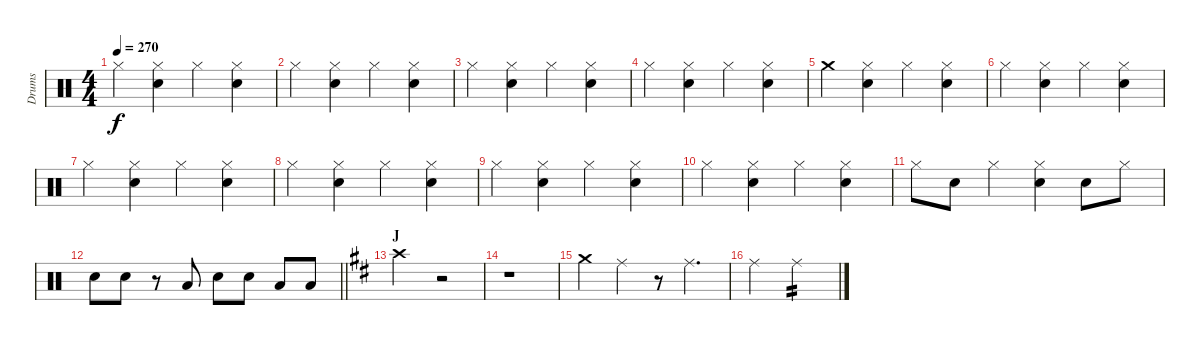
\track ("Drums" "Drums") {instrument percussion}
\staff {score}
\articulation defaults
\ts (4 4)
\tempo 270
\clef neutral
\ks c "Hi-Hat (closed)".4{dy f}
("Hi-Hat (closed)" "Snare (hit) 2").4 "Hi-Hat (closed)".4 ("Hi-Hat (closed)" "Snare (hit) 2").4 |
"Hi-Hat (closed)".4 ("Hi-Hat (closed)" "Snare (hit) 2").4 "Hi-Hat (closed)".4 ("Hi-Hat (closed)" "Snare (hit) 2").4 |
"Hi-Hat (closed)".4 ("Hi-Hat (closed)" "Snare (hit) 2").4 "Hi-Hat (closed)".4 ("Hi-Hat (closed)" "Snare (hit) 2").4 |
"Hi-Hat (closed)".4 ("Hi-Hat (closed)" "Snare (hit) 2").4 "Hi-Hat (closed)".4 ("Hi-Hat (closed)" "Snare (hit) 2").4 |
"Crash medium (hit)".4 ("Hi-Hat (closed)" "Snare (hit) 2").4 "Hi-Hat (closed)".4 ("Hi-Hat (closed)" "Snare (hit) 2").4 |
"Hi-Hat (closed)".4 ("Hi-Hat (closed)" "Snare (hit) 2").4 "Hi-Hat (closed)".4 ("Hi-Hat (closed)" "Snare (hit) 2").4 |
"Hi-Hat (closed)".4 ("Hi-Hat (closed)" "Snare (hit) 2").4 "Hi-Hat (closed)".4 ("Hi-Hat (closed)" "Snare (hit) 2").4 |
"Hi-Hat (closed)".4 ("Hi-Hat (closed)" "Snare (hit) 2").4 "Hi-Hat (closed)".4 ("Hi-Hat (closed)" "Snare (hit) 2").4 |
"Hi-Hat (closed)".4 ("Hi-Hat (closed)" "Snare (hit) 2").4 "Hi-Hat (closed)".4 ("Hi-Hat (closed)" "Snare (hit) 2").4 |
"Hi-Hat (closed)".4 ("Hi-Hat (closed)" "Snare (hit) 2").4 "Hi-Hat (closed)".4 ("Hi-Hat (closed)" "Snare (hit) 2").4 |
"Hi-Hat (closed)".8 "Snare (hit) 2".8 "Hi-Hat (closed)".4 ("Hi-Hat (closed)" "Snare (hit) 2").4 "Snare (hit) 2".8 "Hi-Hat (closed)".8 |
\barLineRight lightlight "Snare (hit) 2".8 "Snare (hit) 2".8
r.8 "Low Tom (hit)".8 "Snare (hit) 2".8 "Snare (hit) 2".8 "Low Tom (hit)".8 "Low Tom (hit)".8 |
\section ("" "J")
\ks d "Crash high (hit)".2
r.2 |
r.1 |
"Crash medium (hit)".4 "Ride (middle)".4 r.8 "Ride (middle)".4{d} |
"Ride (middle)".2 "Ride (middle)".2{tp 2}
